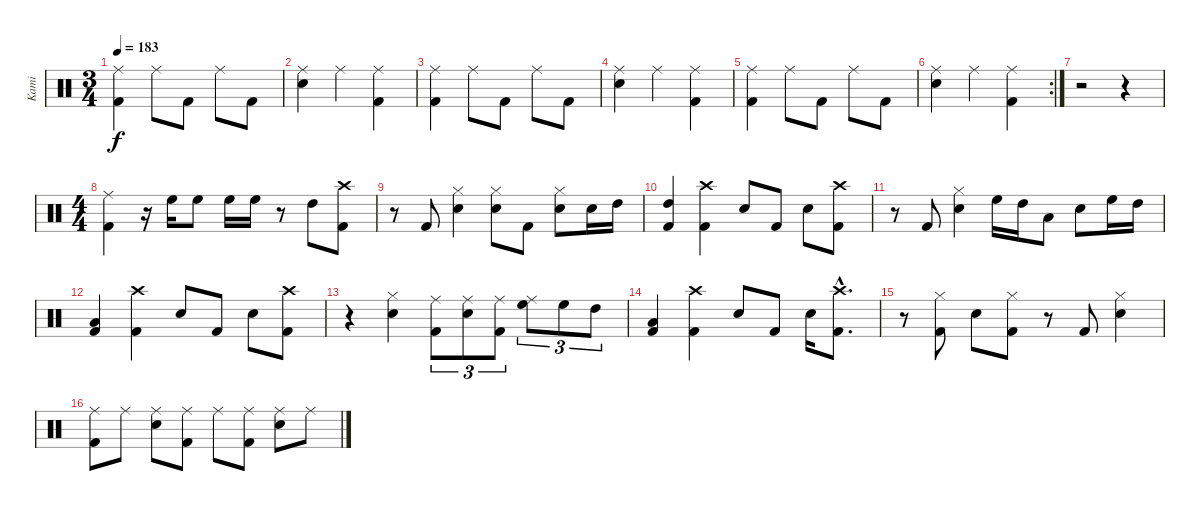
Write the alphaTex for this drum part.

\track ("Kami" "Kami") {instrument percussion}
\staff {score}
\articulation defaults
\ts (3 4)
\tempo 183
\clef neutral
\ks c
("Ride (middle)" "Kick (hit) 2").4{dy f} "Ride (middle)".8 "Kick (hit) 2".8 "Ride (middle)".8 "Kick (hit) 2".8 |
("Ride (middle)" "Electric Snare (hit)").4 "Ride (middle)".4 ("Ride (middle)" "Kick (hit) 2").4 |
("Ride (middle)" "Kick (hit) 2").4 "Ride (middle)".8 "Kick (hit) 2".8 "Ride (middle)".8 "Kick (hit) 2".8 |
("Ride (middle)" "Electric Snare (hit)").4 "Ride (middle)".4 ("Ride (middle)" "Kick (hit) 2").4 |
("Ride (middle)" "Kick (hit) 2").4 "Ride (middle)".8 "Kick (hit) 2".8 "Ride (middle)".8 "Kick (hit) 2".8 |
\rc 2
("Ride (middle)" "Electric Snare (hit)").4 "Ride (middle)".4 ("Ride (middle)" "Kick (hit) 2").4 |
r.2 r.4 |
\ts (4 4)
("Ride (middle)" "Kick (hit) 2").4 r.16 "High Floor Tom (hit)".16 "High Floor Tom (hit)".8 "High Floor Tom (hit)".16 "High Floor Tom (hit)".16 r.8 "High Tom (hit)".8 ("Crash high (hit)" "Kick (hit) 2").8 |
r.8 "Kick (hit) 2".8 ("Hi-Hat (closed)" "Electric Snare (hit)").4 ("Hi-Hat (closed)" "Electric Snare (hit)").8 "Kick (hit) 2".8 ("Hi-Hat (closed)" "Electric Snare (hit)").8 "Electric Snare (hit)".16 "High Tom (hit)".16 |
("High Tom (hit)" "Kick (hit) 2").4 ("Crash high (hit)" "Kick (hit) 2").4 "Electric Snare (hit)".8 "Kick (hit) 2".8 "Electric Snare (hit)".8 ("Crash high (hit)" "Kick (hit) 2").8 |
r.8 "Kick (hit) 2".8 ("Hi-Hat (closed)" "Electric Snare (hit)").4 "High Floor Tom (hit)".16 "High Tom (hit)".16 "Low Tom (hit)".8 "Electric Snare (hit)".8 "High Floor Tom (hit)".16 "High Tom (hit)".16 |
("Low Tom (hit)" "Kick (hit) 2").4 ("Crash high (hit)" "Kick (hit) 2").4 "Electric Snare (hit)".8 "Kick (hit) 2".8 "Electric Snare (hit)".8 ("Crash high (hit)" "Kick (hit) 2").8 |
r.4 ("Hi-Hat (closed)" "Electric Snare (hit)").4 ("Ride (middle)" "Kick (hit) 2").8{tu (3 2)} ("Ride (middle)" "Electric Snare (hit)").8{tu (3 2)} ("Ride (middle)" "Kick (hit) 2").8{tu (3 2)} ("Ride (middle)" "High Floor Tom (hit)").8{tu (3 2)} "High Floor Tom (hit)".8{tu (3 2)} "High Tom (hit)".8{tu (3 2)} |
("Low Tom (hit)" "Kick (hit) 2").4 ("Crash high (hit)" "Kick (hit) 2").4 "Electric Snare (hit)".8 "Kick (hit) 2".8 "Electric Snare (hit)".16 ("Crash high (hit)"{hac} "Kick (hit) 2"{hac}).8{d} |
r.8 ("Hi-Hat (closed)" "Kick (hit) 2").8 "Electric Snare (hit)".8 ("Hi-Hat (closed)" "Kick (hit) 2").8 r.8 "Kick (hit) 2".8 ("Hi-Hat (closed)" "Electric Snare (hit)").4 |
("Ride (middle)" "Kick (hit) 2").8 "Ride (middle)".8 ("Ride (middle)" "Electric Snare (hit)").8 ("Ride (middle)" "Kick (hit) 2").8 "Ride (middle)".8 ("Ride (middle)" "Kick (hit) 2").8 ("Ride (middle)" "Electric Snare (hit)").8 "Ride (middle)".8
